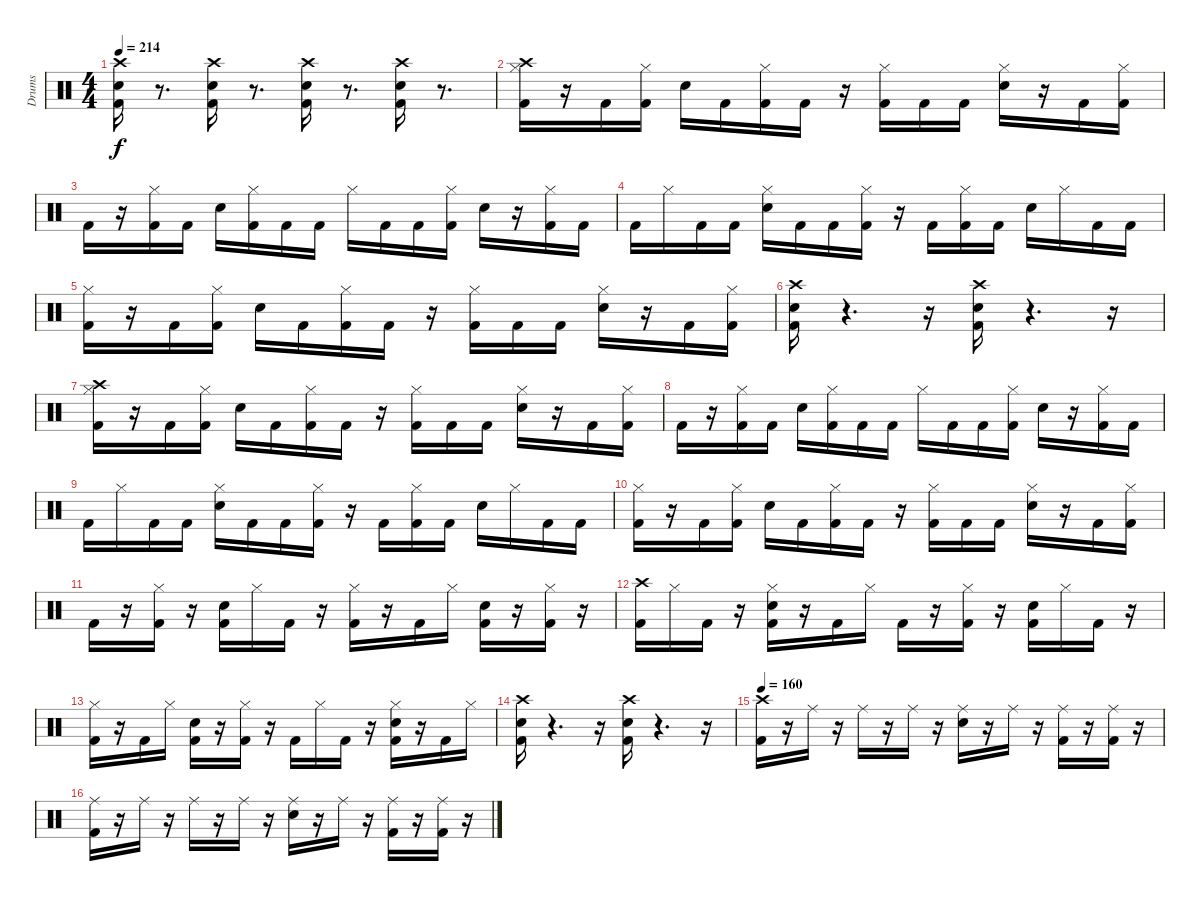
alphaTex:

\track ("Drums               " "Drums     ") {instrument percussion}
\staff {score}
\articulation defaults
\ts (4 4)
\tempo 214
\clef neutral
\ks c
("Kick (hit) 2" "Snare (hit) 2" "Crash high (hit)").16{dy f} r.8{d} ("Kick (hit) 2" "Snare (hit) 2" "Crash high (hit)").16 r.8{d} ("Kick (hit) 2" "Snare (hit) 2" "Crash high (hit)").16 r.8{d} ("Kick (hit) 2" "Snare (hit) 2" "Crash high (hit)").16 r.8{d} |
("Kick (hit) 2" "Hi-Hat (closed)" "Crash high (hit)").16 r.16 "Kick (hit) 2".16 ("Kick (hit) 2" "Hi-Hat (closed)").16 "Snare (hit) 2".16 "Kick (hit) 2".16 ("Kick (hit) 2" "Hi-Hat (closed)").16 "Kick (hit) 2".16 r.16 ("Kick (hit) 2" "Hi-Hat (closed)").16 "Kick (hit) 2".16 "Kick (hit) 2".16 ("Snare (hit) 2" "Hi-Hat (closed)").16 r.16 "Kick (hit) 2".16 ("Kick (hit) 2" "Hi-Hat (closed)").16 |
"Kick (hit) 2".16 r.16 ("Kick (hit) 2" "Hi-Hat (closed)").16 "Kick (hit) 2".16 "Snare (hit) 2".16 ("Kick (hit) 2" "Hi-Hat (closed)").16 "Kick (hit) 2".16 "Kick (hit) 2".16 "Hi-Hat (closed)".16 "Kick (hit) 2".16 "Kick (hit) 2".16 ("Kick (hit) 2" "Hi-Hat (closed)").16 "Snare (hit) 2".16 r.16 ("Kick (hit) 2" "Hi-Hat (closed)").16 "Kick (hit) 2".16 |
"Kick (hit) 2".16 "Hi-Hat (closed)".16 "Kick (hit) 2".16 "Kick (hit) 2".16 ("Snare (hit) 2" "Hi-Hat (closed)").16 "Kick (hit) 2".16 "Kick (hit) 2".16 ("Kick (hit) 2" "Hi-Hat (closed)").16 r.16 "Kick (hit) 2".16 ("Kick (hit) 2" "Hi-Hat (closed)").16 "Kick (hit) 2".16 "Snare (hit) 2".16 "Hi-Hat (closed)".16 "Kick (hit) 2".16 "Kick (hit) 2".16 |
("Kick (hit) 2" "Hi-Hat (closed)").16 r.16 "Kick (hit) 2".16 ("Kick (hit) 2" "Hi-Hat (closed)").16 "Snare (hit) 2".16 "Kick (hit) 2".16 ("Kick (hit) 2" "Hi-Hat (closed)").16 "Kick (hit) 2".16 r.16 ("Kick (hit) 2" "Hi-Hat (closed)").16 "Kick (hit) 2".16 "Kick (hit) 2".16 ("Snare (hit) 2" "Hi-Hat (closed)").16 r.16 "Kick (hit) 2".16 ("Kick (hit) 2" "Hi-Hat (closed)").16 |
("Kick (hit) 2" "Snare (hit) 2" "Crash high (hit)").16 r.4{d} r.16 ("Kick (hit) 2" "Snare (hit) 2" "Crash high (hit)").16 r.4{d} r.16 |
("Kick (hit) 2" "Hi-Hat (closed)" "Crash high (hit)").16 r.16 "Kick (hit) 2".16 ("Kick (hit) 2" "Hi-Hat (closed)").16 "Snare (hit) 2".16 "Kick (hit) 2".16 ("Kick (hit) 2" "Hi-Hat (closed)").16 "Kick (hit) 2".16 r.16 ("Kick (hit) 2" "Hi-Hat (closed)").16 "Kick (hit) 2".16 "Kick (hit) 2".16 ("Snare (hit) 2" "Hi-Hat (closed)").16 r.16 "Kick (hit) 2".16 ("Kick (hit) 2" "Hi-Hat (closed)").16 |
"Kick (hit) 2".16 r.16 ("Kick (hit) 2" "Hi-Hat (closed)").16 "Kick (hit) 2".16 "Snare (hit) 2".16 ("Kick (hit) 2" "Hi-Hat (closed)").16 "Kick (hit) 2".16 "Kick (hit) 2".16 "Hi-Hat (closed)".16 "Kick (hit) 2".16 "Kick (hit) 2".16 ("Kick (hit) 2" "Hi-Hat (closed)").16 "Snare (hit) 2".16 r.16 ("Kick (hit) 2" "Hi-Hat (closed)").16 "Kick (hit) 2".16 |
"Kick (hit) 2".16 "Hi-Hat (closed)".16 "Kick (hit) 2".16 "Kick (hit) 2".16 ("Snare (hit) 2" "Hi-Hat (closed)").16 "Kick (hit) 2".16 "Kick (hit) 2".16 ("Kick (hit) 2" "Hi-Hat (closed)").16 r.16 "Kick (hit) 2".16 ("Kick (hit) 2" "Hi-Hat (closed)").16 "Kick (hit) 2".16 "Snare (hit) 2".16 "Hi-Hat (closed)".16 "Kick (hit) 2".16 "Kick (hit) 2".16 |
("Kick (hit) 2" "Hi-Hat (closed)").16 r.16 "Kick (hit) 2".16 ("Kick (hit) 2" "Hi-Hat (closed)").16 "Snare (hit) 2".16 "Kick (hit) 2".16 ("Kick (hit) 2" "Hi-Hat (closed)").16 "Kick (hit) 2".16 r.16 ("Kick (hit) 2" "Hi-Hat (closed)").16 "Kick (hit) 2".16 "Kick (hit) 2".16 ("Snare (hit) 2" "Hi-Hat (closed)").16 r.16 "Kick (hit) 2".16 ("Kick (hit) 2" "Hi-Hat (closed)").16 |
"Kick (hit) 2".16 r.16 ("Kick (hit) 2" "Hi-Hat (closed)").16 r.16 ("Kick (hit) 2" "Snare (hit) 2").16 "Hi-Hat (closed)".16 "Kick (hit) 2".16 r.16 ("Kick (hit) 2" "Hi-Hat (closed)").16 r.16 "Kick (hit) 2".16 "Hi-Hat (closed)".16 ("Kick (hit) 2" "Snare (hit) 2").16 r.16 ("Kick (hit) 2" "Hi-Hat (closed)").16 r.16 |
("Kick (hit) 2" "Crash high (hit)").16 "Hi-Hat (closed)".16 "Kick (hit) 2".16 r.16 ("Kick (hit) 2" "Snare (hit) 2" "Hi-Hat (closed)").16 r.16 "Kick (hit) 2".16 "Hi-Hat (closed)".16 "Kick (hit) 2".16 r.16 ("Kick (hit) 2" "Hi-Hat (closed)").16 r.16 ("Kick (hit) 2" "Snare (hit) 2").16 "Hi-Hat (closed)".16 "Kick (hit) 2".16 r.16 |
("Kick (hit) 2" "Hi-Hat (closed)").16 r.16 "Kick (hit) 2".16 "Hi-Hat (closed)".16 ("Kick (hit) 2" "Snare (hit) 2").16 r.16 ("Kick (hit) 2" "Hi-Hat (closed)").16 r.16 "Kick (hit) 2".16 "Hi-Hat (closed)".16 "Kick (hit) 2".16 r.16 ("Kick (hit) 2" "Snare (hit) 2" "Hi-Hat (closed)").16 r.16 "Kick (hit) 2".16 "Hi-Hat (closed)".16 |
("Kick (hit) 2" "Snare (hit) 2" "Crash high (hit)").16 r.4{d} r.16 ("Kick (hit) 2" "Snare (hit) 2" "Crash high (hit)").16 r.4{d} r.16 |
\tempo 160
("Kick (hit) 2" "Crash high (hit)").16 r.16 "Ride (middle)".16 r.16 "Ride (middle)".16 r.16 "Ride (middle)".16 r.16 ("Snare (hit) 2" "Ride (middle)").16 r.16 "Ride (middle)".16 r.16 ("Kick (hit) 2" "Ride (middle)").16 r.16 ("Kick (hit) 2" "Ride (middle)").16 r.16 |
("Kick (hit) 2" "Ride (middle)").16 r.16 "Ride (middle)".16 r.16 "Ride (middle)".16 r.16 "Ride (middle)".16 r.16 ("Snare (hit) 2" "Ride (middle)").16 r.16 "Ride (middle)".16 r.16 ("Kick (hit) 2" "Ride (middle)").16 r.16 ("Kick (hit) 2" "Ride (middle)").16 r.16
